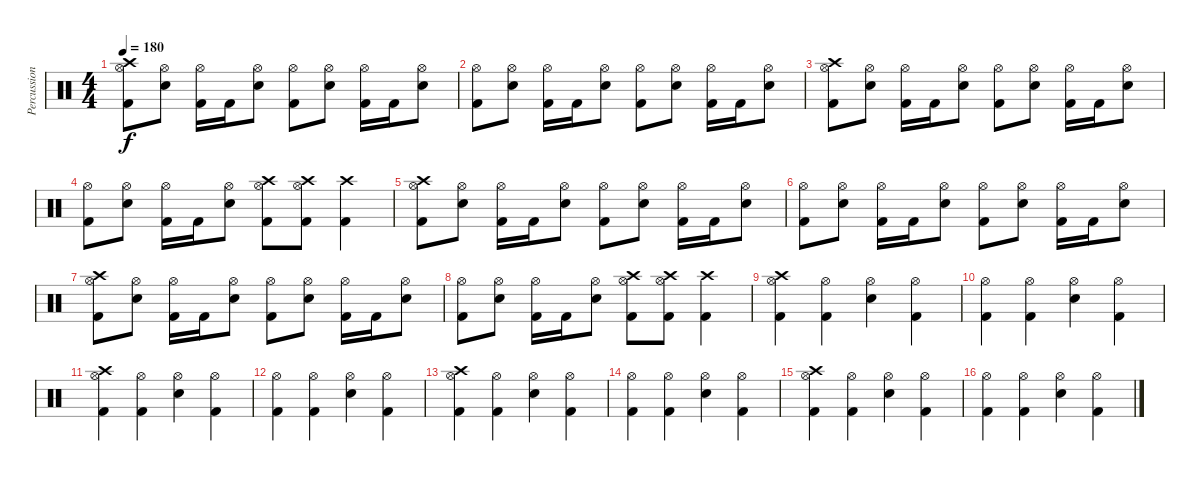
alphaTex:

\track ("Percussion" "Percussion") {instrument percussion}
\staff {score}
\articulation defaults
\ts (4 4)
\tempo 180
\clef neutral
\ks c
("Crash high (hit)" "Hi-Hat (open)" "Kick (hit) 2").8{dy f} ("Hi-Hat (open)" "Snare (hit) 2").8 ("Hi-Hat (open)" "Kick (hit) 2").16 "Kick (hit) 2".16 ("Hi-Hat (open)" "Snare (hit) 2").8 ("Hi-Hat (open)" "Kick (hit) 2").8 ("Hi-Hat (open)" "Snare (hit) 2").8 ("Hi-Hat (open)" "Kick (hit) 2").16 "Kick (hit) 2".16 ("Hi-Hat (open)" "Snare (hit) 2").8 |
("Hi-Hat (open)" "Kick (hit) 2").8 ("Hi-Hat (open)" "Snare (hit) 2").8 ("Hi-Hat (open)" "Kick (hit) 2").16 "Kick (hit) 2".16 ("Hi-Hat (open)" "Snare (hit) 2").8 ("Hi-Hat (open)" "Kick (hit) 2").8 ("Hi-Hat (open)" "Snare (hit) 2").8 ("Hi-Hat (open)" "Kick (hit) 2").16 "Kick (hit) 2".16 ("Hi-Hat (open)" "Snare (hit) 2").8 |
("Crash high (hit)" "Hi-Hat (open)" "Kick (hit) 2").8 ("Hi-Hat (open)" "Snare (hit) 2").8 ("Hi-Hat (open)" "Kick (hit) 2").16 "Kick (hit) 2".16 ("Hi-Hat (open)" "Snare (hit) 2").8 ("Hi-Hat (open)" "Kick (hit) 2").8 ("Hi-Hat (open)" "Snare (hit) 2").8 ("Hi-Hat (open)" "Kick (hit) 2").16 "Kick (hit) 2".16 ("Hi-Hat (open)" "Snare (hit) 2").8 |
("Hi-Hat (open)" "Kick (hit) 2").8 ("Hi-Hat (open)" "Snare (hit) 2").8 ("Hi-Hat (open)" "Kick (hit) 2").16 "Kick (hit) 2".16 ("Hi-Hat (open)" "Snare (hit) 2").8 ("Crash high (hit)" "Hi-Hat (open)" "Kick (hit) 2").8 ("Crash high (hit)" "Hi-Hat (open)" "Kick (hit) 2").8 ("Crash high (hit)" "Kick (hit) 2").4 |
("Crash high (hit)" "Hi-Hat (open)" "Kick (hit) 2").8 ("Hi-Hat (open)" "Snare (hit) 2").8 ("Hi-Hat (open)" "Kick (hit) 2").16 "Kick (hit) 2".16 ("Hi-Hat (open)" "Snare (hit) 2").8 ("Hi-Hat (open)" "Kick (hit) 2").8 ("Hi-Hat (open)" "Snare (hit) 2").8 ("Hi-Hat (open)" "Kick (hit) 2").16 "Kick (hit) 2".16 ("Hi-Hat (open)" "Snare (hit) 2").8 |
("Hi-Hat (open)" "Kick (hit) 2").8 ("Hi-Hat (open)" "Snare (hit) 2").8 ("Hi-Hat (open)" "Kick (hit) 2").16 "Kick (hit) 2".16 ("Hi-Hat (open)" "Snare (hit) 2").8 ("Hi-Hat (open)" "Kick (hit) 2").8 ("Hi-Hat (open)" "Snare (hit) 2").8 ("Hi-Hat (open)" "Kick (hit) 2").16 "Kick (hit) 2".16 ("Hi-Hat (open)" "Snare (hit) 2").8 |
("Crash high (hit)" "Hi-Hat (open)" "Kick (hit) 2").8 ("Hi-Hat (open)" "Snare (hit) 2").8 ("Hi-Hat (open)" "Kick (hit) 2").16 "Kick (hit) 2".16 ("Hi-Hat (open)" "Snare (hit) 2").8 ("Hi-Hat (open)" "Kick (hit) 2").8 ("Hi-Hat (open)" "Snare (hit) 2").8 ("Hi-Hat (open)" "Kick (hit) 2").16 "Kick (hit) 2".16 ("Hi-Hat (open)" "Snare (hit) 2").8 |
("Hi-Hat (open)" "Kick (hit) 2").8 ("Hi-Hat (open)" "Snare (hit) 2").8 ("Hi-Hat (open)" "Kick (hit) 2").16 "Kick (hit) 2".16 ("Hi-Hat (open)" "Snare (hit) 2").8 ("Crash high (hit)" "Hi-Hat (open)" "Kick (hit) 2").8 ("Crash high (hit)" "Hi-Hat (open)" "Kick (hit) 2").8 ("Crash high (hit)" "Kick (hit) 2").4 |
("Crash high (hit)" "Hi-Hat (open)" "Kick (hit) 2").4 ("Hi-Hat (open)" "Kick (hit) 2").4 ("Hi-Hat (open)" "Snare (hit) 2").4 ("Hi-Hat (open)" "Kick (hit) 2").4 |
("Hi-Hat (open)" "Kick (hit) 2").4 ("Hi-Hat (open)" "Kick (hit) 2").4 ("Hi-Hat (open)" "Snare (hit) 2").4 ("Hi-Hat (open)" "Kick (hit) 2").4 |
("Crash high (hit)" "Hi-Hat (open)" "Kick (hit) 2").4 ("Hi-Hat (open)" "Kick (hit) 2").4 ("Hi-Hat (open)" "Snare (hit) 2").4 ("Hi-Hat (open)" "Kick (hit) 2").4 |
("Hi-Hat (open)" "Kick (hit) 2").4 ("Hi-Hat (open)" "Kick (hit) 2").4 ("Hi-Hat (open)" "Snare (hit) 2").4 ("Hi-Hat (open)" "Kick (hit) 2").4 |
("Crash high (hit)" "Hi-Hat (open)" "Kick (hit) 2").4 ("Hi-Hat (open)" "Kick (hit) 2").4 ("Hi-Hat (open)" "Snare (hit) 2").4 ("Hi-Hat (open)" "Kick (hit) 2").4 |
("Hi-Hat (open)" "Kick (hit) 2").4 ("Hi-Hat (open)" "Kick (hit) 2").4 ("Hi-Hat (open)" "Snare (hit) 2").4 ("Hi-Hat (open)" "Kick (hit) 2").4 |
("Crash high (hit)" "Hi-Hat (open)" "Kick (hit) 2").4 ("Hi-Hat (open)" "Kick (hit) 2").4 ("Hi-Hat (open)" "Snare (hit) 2").4 ("Hi-Hat (open)" "Kick (hit) 2").4 |
("Hi-Hat (open)" "Kick (hit) 2").4 ("Hi-Hat (open)" "Kick (hit) 2").4 ("Hi-Hat (open)" "Snare (hit) 2").4 ("Hi-Hat (open)" "Kick (hit) 2").4
